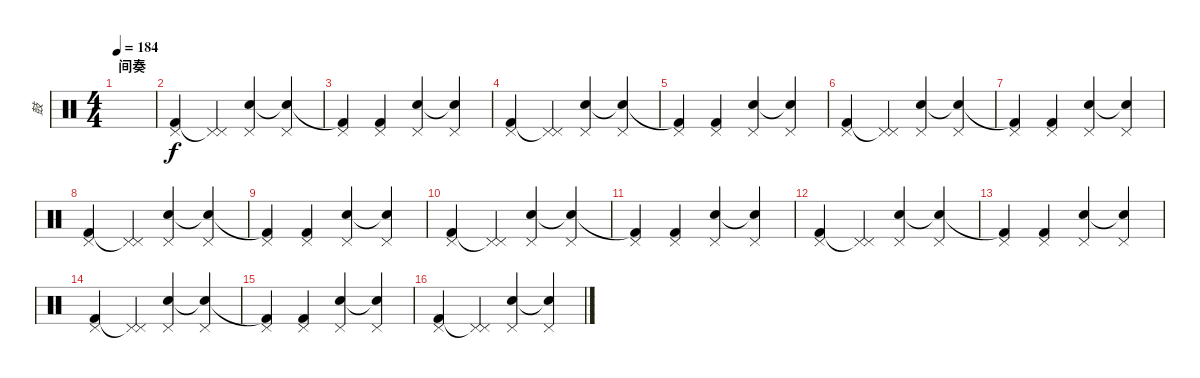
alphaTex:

\track ("鼓" "鼓") {instrument percussion}
\staff {score}
\articulation defaults
\ts (4 4)
\section ("" "间奏")
\tempo 184
\clef neutral
\ks c
|
("Pedal Hi-Hat (hit)" "Kick (hit) 2").4 ("Pedal Hi-Hat (hit)" "Pedal Hi-Hat (hit)"{t}).4 ("Pedal Hi-Hat (hit)" "Electric Snare (hit)").4 ("Pedal Hi-Hat (hit)" "Snare (hit)"{t}).4 |
("Pedal Hi-Hat (hit)" "Kick (hit) 2"{t}).4 ("Pedal Hi-Hat (hit)" "Kick (hit) 2").4 ("Pedal Hi-Hat (hit)" "Electric Snare (hit)").4 ("Pedal Hi-Hat (hit)" "Snare (hit)"{t}).4 |
("Pedal Hi-Hat (hit)" "Kick (hit) 2").4 ("Pedal Hi-Hat (hit)" "Pedal Hi-Hat (hit)"{t}).4 ("Pedal Hi-Hat (hit)" "Electric Snare (hit)").4 ("Pedal Hi-Hat (hit)" "Snare (hit)"{t}).4 |
("Pedal Hi-Hat (hit)" "Kick (hit) 2"{t}).4 ("Pedal Hi-Hat (hit)" "Kick (hit) 2").4 ("Pedal Hi-Hat (hit)" "Electric Snare (hit)").4 ("Pedal Hi-Hat (hit)" "Snare (hit)"{t}).4 |
("Pedal Hi-Hat (hit)" "Kick (hit) 2").4 ("Pedal Hi-Hat (hit)" "Pedal Hi-Hat (hit)"{t}).4 ("Pedal Hi-Hat (hit)" "Electric Snare (hit)").4 ("Pedal Hi-Hat (hit)" "Snare (hit)"{t}).4 |
("Pedal Hi-Hat (hit)" "Kick (hit) 2"{t}).4 ("Pedal Hi-Hat (hit)" "Kick (hit) 2").4 ("Pedal Hi-Hat (hit)" "Electric Snare (hit)").4 ("Pedal Hi-Hat (hit)" "Snare (hit)"{t}).4 |
("Pedal Hi-Hat (hit)" "Kick (hit) 2").4 ("Pedal Hi-Hat (hit)" "Pedal Hi-Hat (hit)"{t}).4 ("Pedal Hi-Hat (hit)" "Electric Snare (hit)").4 ("Pedal Hi-Hat (hit)" "Snare (hit)"{t}).4 |
("Pedal Hi-Hat (hit)" "Kick (hit) 2"{t}).4 ("Pedal Hi-Hat (hit)" "Kick (hit) 2").4 ("Pedal Hi-Hat (hit)" "Electric Snare (hit)").4 ("Pedal Hi-Hat (hit)" "Snare (hit)"{t}).4 |
("Pedal Hi-Hat (hit)" "Kick (hit) 2").4 ("Pedal Hi-Hat (hit)" "Pedal Hi-Hat (hit)"{t}).4 ("Pedal Hi-Hat (hit)" "Electric Snare (hit)").4 ("Pedal Hi-Hat (hit)" "Snare (hit)"{t}).4 |
("Pedal Hi-Hat (hit)" "Kick (hit) 2"{t}).4 ("Pedal Hi-Hat (hit)" "Kick (hit) 2").4 ("Pedal Hi-Hat (hit)" "Electric Snare (hit)").4 ("Pedal Hi-Hat (hit)" "Snare (hit)"{t}).4 |
("Pedal Hi-Hat (hit)" "Kick (hit) 2").4 ("Pedal Hi-Hat (hit)" "Pedal Hi-Hat (hit)"{t}).4 ("Pedal Hi-Hat (hit)" "Electric Snare (hit)").4 ("Pedal Hi-Hat (hit)" "Snare (hit)"{t}).4 |
("Pedal Hi-Hat (hit)" "Kick (hit) 2"{t}).4 ("Pedal Hi-Hat (hit)" "Kick (hit) 2").4 ("Pedal Hi-Hat (hit)" "Electric Snare (hit)").4 ("Pedal Hi-Hat (hit)" "Snare (hit)"{t}).4 |
("Pedal Hi-Hat (hit)" "Kick (hit) 2").4 ("Pedal Hi-Hat (hit)" "Pedal Hi-Hat (hit)"{t}).4 ("Pedal Hi-Hat (hit)" "Electric Snare (hit)").4 ("Pedal Hi-Hat (hit)" "Snare (hit)"{t}).4 |
("Pedal Hi-Hat (hit)" "Kick (hit) 2"{t}).4 ("Pedal Hi-Hat (hit)" "Kick (hit) 2").4 ("Pedal Hi-Hat (hit)" "Electric Snare (hit)").4 ("Pedal Hi-Hat (hit)" "Snare (hit)"{t}).4 |
("Pedal Hi-Hat (hit)" "Kick (hit) 2").4 ("Pedal Hi-Hat (hit)" "Pedal Hi-Hat (hit)"{t}).4 ("Pedal Hi-Hat (hit)" "Electric Snare (hit)").4 ("Pedal Hi-Hat (hit)" "Snare (hit)"{t}).4
